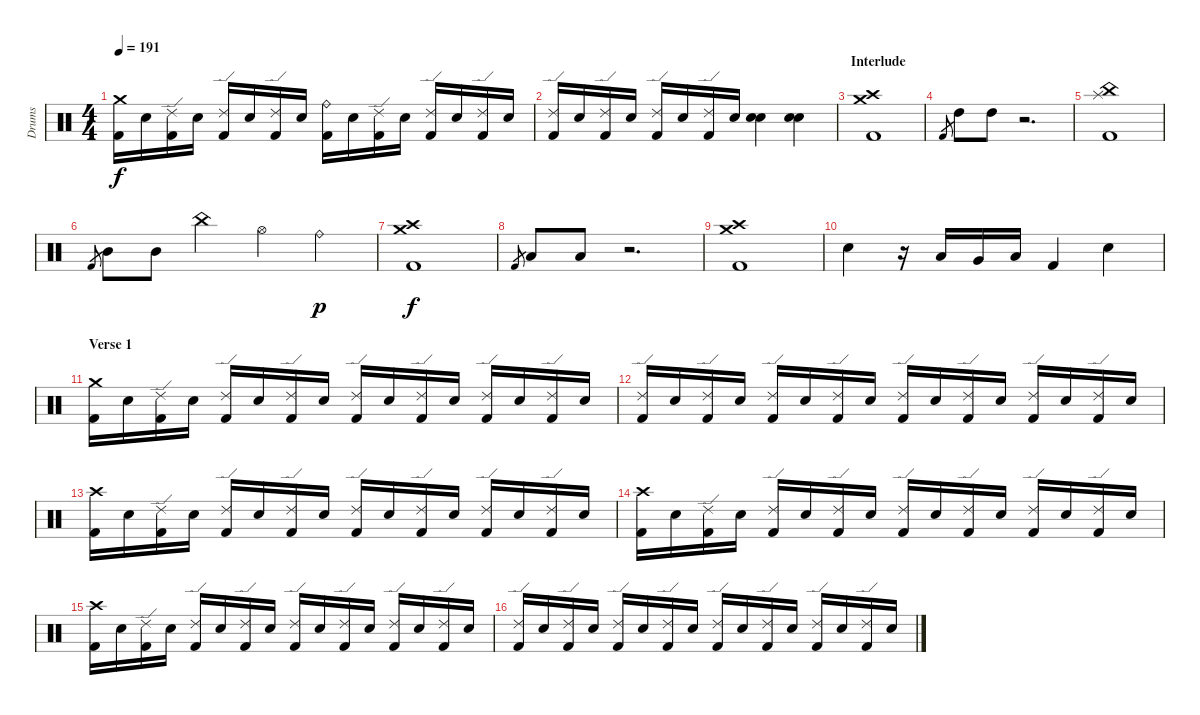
\track ("Drums" "Drums") {instrument percussion}
\staff {score}
\articulation defaults
\ts (4 4)
\tempo 191
\clef neutral
\ks c
("Crash medium (hit)" "Kick (hit) 2").16{dy f} "Electric Snare (hit)".16 ("Ride (edge) 2" "Kick (hit) 2").16 "Electric Snare (hit)".16 ("Ride (edge) 2" "Kick (hit) 2").16 "Electric Snare (hit)".16 ("Ride (edge) 2" "Kick (hit) 2").16 "Electric Snare (hit)".16 ("Ride (bell)" "Kick (hit) 2").16 "Electric Snare (hit)".16 ("Ride (edge) 2" "Kick (hit) 2").16 "Electric Snare (hit)".16 ("Ride (edge) 2" "Kick (hit) 2").16 "Electric Snare (hit)".16 ("Ride (edge) 2" "Kick (hit) 2").16 "Electric Snare (hit)".16 |
("Ride (edge) 2" "Kick (hit) 2").16 "Electric Snare (hit)".16 ("Ride (edge) 2" "Kick (hit) 2").16 "Electric Snare (hit)".16 ("Ride (edge) 2" "Kick (hit) 2").16 "Electric Snare (hit)".16 ("Ride (edge) 2" "Kick (hit) 2").16 "Electric Snare (hit)".16 ("Snare (hit) 2" "Snare (hit) 2").4{bd 480} ("Electric Snare (hit)" "Electric Snare (hit)").4{bd 480} |
\section ("" "Interlude")
("Crash medium (hit)" "Crash high (hit)" "Kick (hit) 2").1 |
"Kick (hit) 2".8{gr} "High Tom (hit)".8 "High Tom (hit)".8 r.2{d} |
("China (hit)" "Splash (hit)" "Kick (hit) 2").1 |
"Kick (hit) 2".8{gr} "Mid Tom (hit)".8 "Mid Tom (hit)".8 "China (hit)".4 "Hi-Hat (open)".4 "Ride (bell)".4{dy p} |
("Crash medium (hit)" "Crash high (hit)" "Kick (hit) 2").1{dy f} |
"Kick (hit) 2".8{gr} "Low Floor Tom (hit)".8 "Low Floor Tom (hit)".8 r.2{d} |
("Crash medium (hit)" "Crash high (hit)" "Kick (hit) 2").1 |
"Electric Snare (hit)".4 r.16 "Low Tom (hit)".16 "Very Low Tom (hit)".16 "Low Floor Tom (hit)".16 "Kick (hit) 2".4 "Electric Snare (hit)".4 |
\section ("" "Verse 1")
("Crash medium (hit)" "Kick (hit) 2").16 "Electric Snare (hit)".16 ("Ride (edge) 2" "Kick (hit) 2").16 "Electric Snare (hit)".16 ("Ride (edge) 2" "Kick (hit) 2").16 "Electric Snare (hit)".16 ("Ride (edge) 2" "Kick (hit) 2").16 "Electric Snare (hit)".16 ("Ride (edge) 2" "Kick (hit) 2").16 "Electric Snare (hit)".16 ("Ride (edge) 2" "Kick (hit) 2").16 "Electric Snare (hit)".16 ("Ride (edge) 2" "Kick (hit) 2").16 "Electric Snare (hit)".16 ("Ride (edge) 2" "Kick (hit) 2").16 "Electric Snare (hit)".16 |
("Ride (edge) 2" "Kick (hit) 2").16 "Electric Snare (hit)".16 ("Ride (edge) 2" "Kick (hit) 2").16 "Electric Snare (hit)".16 ("Ride (edge) 2" "Kick (hit) 2").16 "Electric Snare (hit)".16 ("Ride (edge) 2" "Kick (hit) 2").16 "Electric Snare (hit)".16 ("Ride (edge) 2" "Kick (hit) 2").16 "Electric Snare (hit)".16 ("Ride (edge) 2" "Kick (hit) 2").16 "Electric Snare (hit)".16 ("Ride (edge) 2" "Kick (hit) 2").16 "Electric Snare (hit)".16 ("Ride (edge) 2" "Kick (hit) 2").16 "Electric Snare (hit)".16 |
("Crash high (hit)" "Kick (hit) 2").16 "Electric Snare (hit)".16 ("Ride (edge) 2" "Kick (hit) 2").16 "Electric Snare (hit)".16 ("Ride (edge) 2" "Kick (hit) 2").16 "Electric Snare (hit)".16 ("Ride (edge) 2" "Kick (hit) 2").16 "Electric Snare (hit)".16 ("Ride (edge) 2" "Kick (hit) 2").16 "Electric Snare (hit)".16 ("Ride (edge) 2" "Kick (hit) 2").16 "Electric Snare (hit)".16 ("Ride (edge) 2" "Kick (hit) 2").16 "Electric Snare (hit)".16 ("Ride (edge) 2" "Kick (hit) 2").16 "Electric Snare (hit)".16 |
("Crash high (hit)" "Kick (hit) 2").16 "Electric Snare (hit)".16 ("Ride (edge) 2" "Kick (hit) 2").16 "Electric Snare (hit)".16 ("Ride (edge) 2" "Kick (hit) 2").16 "Electric Snare (hit)".16 ("Ride (edge) 2" "Kick (hit) 2").16 "Electric Snare (hit)".16 ("Ride (edge) 2" "Kick (hit) 2").16 "Electric Snare (hit)".16 ("Ride (edge) 2" "Kick (hit) 2").16 "Electric Snare (hit)".16 ("Ride (edge) 2" "Kick (hit) 2").16 "Electric Snare (hit)".16 ("Ride (edge) 2" "Kick (hit) 2").16 "Electric Snare (hit)".16 |
("Crash high (hit)" "Kick (hit) 2").16 "Electric Snare (hit)".16 ("Ride (edge) 2" "Kick (hit) 2").16 "Electric Snare (hit)".16 ("Ride (edge) 2" "Kick (hit) 2").16 "Electric Snare (hit)".16 ("Ride (edge) 2" "Kick (hit) 2").16 "Electric Snare (hit)".16 ("Ride (edge) 2" "Kick (hit) 2").16 "Electric Snare (hit)".16 ("Ride (edge) 2" "Kick (hit) 2").16 "Electric Snare (hit)".16 ("Ride (edge) 2" "Kick (hit) 2").16 "Electric Snare (hit)".16 ("Ride (edge) 2" "Kick (hit) 2").16 "Electric Snare (hit)".16 |
("Ride (edge) 2" "Kick (hit) 2").16 "Electric Snare (hit)".16 ("Ride (edge) 2" "Kick (hit) 2").16 "Electric Snare (hit)".16 ("Ride (edge) 2" "Kick (hit) 2").16 "Electric Snare (hit)".16 ("Ride (edge) 2" "Kick (hit) 2").16 "Electric Snare (hit)".16 ("Ride (edge) 2" "Kick (hit) 2").16 "Electric Snare (hit)".16 ("Ride (edge) 2" "Kick (hit) 2").16 "Electric Snare (hit)".16 ("Ride (edge) 2" "Kick (hit) 2").16 "Electric Snare (hit)".16 ("Ride (edge) 2" "Kick (hit) 2").16 "Electric Snare (hit)".16
